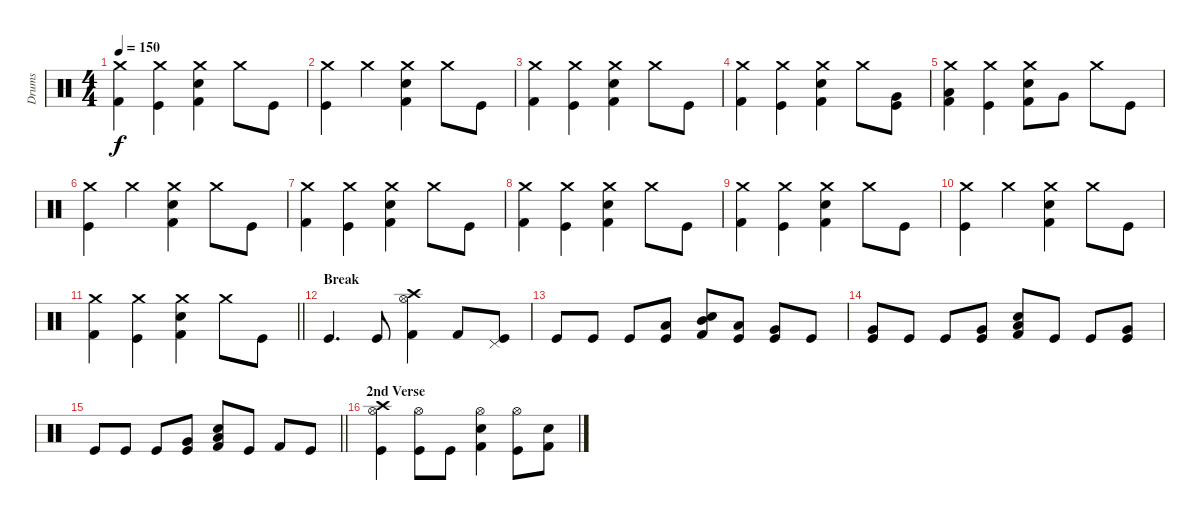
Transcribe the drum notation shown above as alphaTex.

\track ("Drums" "Drums") {instrument percussion}
\staff {score}
\articulation defaults
\ts (4 4)
\tempo 150
\clef neutral
\ks c
("Crash medium (hit)" "Kick (hit) 2").4{dy f} ("Crash medium (hit)" "Kick (hit)").4 ("Crash medium (hit)" "Electric Snare (hit)" "Kick (hit) 2").4 "Crash medium (hit)".8 "Kick (hit)".8 |
("Crash medium (hit)" "Kick (hit)").4 "Crash medium (hit)".4 ("Crash medium (hit)" "Electric Snare (hit)" "Kick (hit) 2").4 "Crash medium (hit)".8 "Kick (hit)".8 |
("Crash medium (hit)" "Kick (hit) 2").4 ("Crash medium (hit)" "Kick (hit)").4 ("Crash medium (hit)" "Electric Snare (hit)" "Kick (hit) 2").4 "Crash medium (hit)".8 "Kick (hit)".8 |
("Crash medium (hit)" "Kick (hit) 2").4 ("Crash medium (hit)" "Kick (hit)").4 ("Crash medium (hit)" "Electric Snare (hit)" "Kick (hit) 2").4 "Crash medium (hit)".8 ("Very Low Tom (hit)" "Kick (hit)").8 |
("Crash medium (hit)" "Low Tom (hit)" "Kick (hit) 2").4 ("Crash medium (hit)" "Kick (hit)").4 ("Crash medium (hit)" "Electric Snare (hit)" "Kick (hit) 2").8 "Very Low Tom (hit)".8 "Crash medium (hit)".8 "Kick (hit)".8 |
("Crash medium (hit)" "Kick (hit)").4 "Crash medium (hit)".4 ("Crash medium (hit)" "Electric Snare (hit)" "Kick (hit) 2").4 "Crash medium (hit)".8 "Kick (hit)".8 |
("Crash medium (hit)" "Kick (hit) 2").4 ("Crash medium (hit)" "Kick (hit)").4 ("Crash medium (hit)" "Electric Snare (hit)" "Kick (hit) 2").4 "Crash medium (hit)".8 "Kick (hit)".8 |
("Crash medium (hit)" "Kick (hit) 2").4 ("Crash medium (hit)" "Kick (hit)").4 ("Crash medium (hit)" "Electric Snare (hit)" "Kick (hit) 2").4 "Crash medium (hit)".8 "Kick (hit)".8 |
("Crash medium (hit)" "Kick (hit) 2").4 ("Crash medium (hit)" "Kick (hit)").4 ("Crash medium (hit)" "Electric Snare (hit)" "Kick (hit) 2").4 "Crash medium (hit)".8 "Kick (hit)".8 |
("Crash medium (hit)" "Kick (hit)").4 "Crash medium (hit)".4 ("Crash medium (hit)" "Electric Snare (hit)" "Kick (hit) 2").4 "Crash medium (hit)".8 "Kick (hit)".8 |
\barLineRight lightlight
("Crash medium (hit)" "Kick (hit) 2").4 ("Crash medium (hit)" "Kick (hit)").4 ("Crash medium (hit)" "Electric Snare (hit)" "Kick (hit) 2").4 "Crash medium (hit)".8 "Kick (hit)".8 |
\section ("" "Break")
"Kick (hit)".4{d} "Kick (hit)".8 ("Crash high (hit)" "Hi-Hat (open)" "Kick (hit) 2").4 "Kick (hit) 2".8 ("Pedal Hi-Hat (hit)" "Kick (hit)").8 |
"Kick (hit)".8 "Kick (hit)".8 "Kick (hit)".8 ("Low Tom (hit)" "Kick (hit)").8 ("Mid Tom (hit)" "Electric Snare (hit)" "Kick (hit) 2").8 ("Low Tom (hit)" "Kick (hit)").8 ("Very Low Tom (hit)" "Kick (hit)").8 "Kick (hit)".8 |
("Very Low Tom (hit)" "Kick (hit)").8 "Kick (hit)".8 "Kick (hit)".8 ("Very Low Tom (hit)" "Kick (hit)").8 ("Low Tom (hit)" "Electric Snare (hit)" "Kick (hit) 2").8 "Kick (hit)".8 "Kick (hit)".8 ("Very Low Tom (hit)" "Kick (hit)").8 |
\barLineRight lightlight "Kick (hit)".8 "Kick (hit)".8 "Kick (hit)".8
("Very Low Tom (hit)" "Kick (hit)").8 ("Low Tom (hit)" "Electric Snare (hit)" "Kick (hit) 2").8 "Kick (hit)".8 "Kick (hit) 2".8 "Kick (hit)".8 |
\section ("" "2nd Verse")
("Crash high (hit)" "Hi-Hat (open)" "Kick (hit)").4 ("Hi-Hat (open)" "Kick (hit)").8 "Kick (hit)".8 ("Hi-Hat (open)" "Electric Snare (hit)" "Kick (hit) 2").4 ("Hi-Hat (open)" "Kick (hit)").8 ("Electric Snare (hit)" "Kick (hit) 2").8
